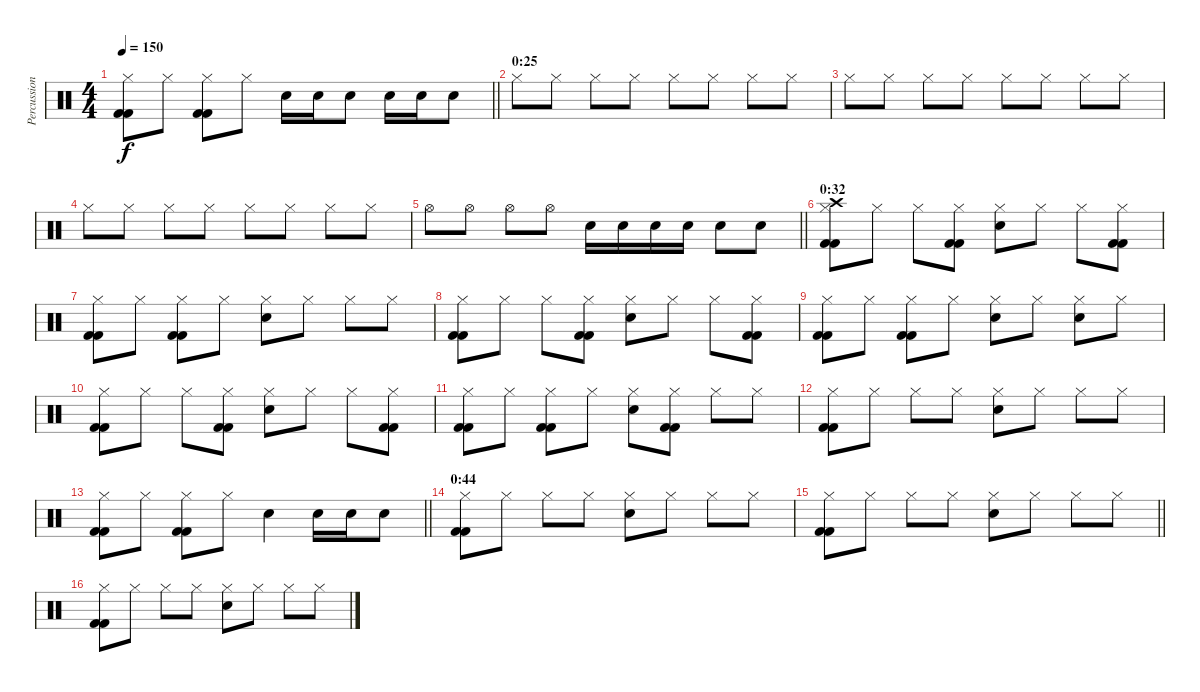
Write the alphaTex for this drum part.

\track ("Percussion" "Percussion") {instrument percussion}
\staff {score}
\articulation defaults
\ts (4 4)
\tempo 150
\clef neutral
\barLineRight lightlight
\ks c
("Kick (hit) 2" "Kick (hit) 2" "Hi-Hat (closed)").8{dy f} "Hi-Hat (closed)".8 ("Kick (hit) 2" "Kick (hit) 2" "Hi-Hat (closed)").8 "Hi-Hat (closed)".8 "Electric Snare (hit)".16 "Electric Snare (hit)".16 "Electric Snare (hit)".8 "Electric Snare (hit)".16 "Electric Snare (hit)".16 "Electric Snare (hit)".8 |
\section ("" "0:25")
"Hi-Hat (closed)".8 "Hi-Hat (closed)".8 "Hi-Hat (closed)".8 "Hi-Hat (closed)".8 "Hi-Hat (closed)".8 "Hi-Hat (closed)".8 "Hi-Hat (closed)".8 "Hi-Hat (closed)".8 |
"Hi-Hat (closed)".8 "Hi-Hat (closed)".8 "Hi-Hat (closed)".8 "Hi-Hat (closed)".8 "Hi-Hat (closed)".8 "Hi-Hat (closed)".8 "Hi-Hat (closed)".8 "Hi-Hat (closed)".8 |
"Hi-Hat (closed)".8 "Hi-Hat (closed)".8 "Hi-Hat (closed)".8 "Hi-Hat (closed)".8 "Hi-Hat (closed)".8 "Hi-Hat (closed)".8 "Hi-Hat (closed)".8 "Hi-Hat (closed)".8 |
\barLineRight lightlight "Hi-Hat (open)".8 "Hi-Hat (open)".8 "Hi-Hat (open)".8 "Hi-Hat (open)".8 "Electric Snare (hit)".16 "Electric Snare (hit)".16 "Electric Snare (hit)".16 "Electric Snare (hit)".16 "Electric Snare (hit)".8 "Electric Snare (hit)".8
|
\section ("" "0:32")
("Kick (hit) 2" "Kick (hit) 2" "Hi-Hat (closed)" "Crash high (hit)").8 "Hi-Hat (closed)".8 "Hi-Hat (closed)".8 ("Kick (hit) 2" "Kick (hit) 2" "Hi-Hat (closed)").8 ("Electric Snare (hit)" "Hi-Hat (closed)").8 "Hi-Hat (closed)".8 "Hi-Hat (closed)".8 ("Kick (hit) 2" "Kick (hit) 2" "Hi-Hat (closed)").8 |
("Kick (hit) 2" "Kick (hit) 2" "Hi-Hat (closed)").8 "Hi-Hat (closed)".8 ("Kick (hit) 2" "Kick (hit) 2" "Hi-Hat (closed)").8 "Hi-Hat (closed)".8 ("Electric Snare (hit)" "Hi-Hat (closed)").8 "Hi-Hat (closed)".8 "Hi-Hat (closed)".8 "Hi-Hat (closed)".8 |
("Kick (hit) 2" "Kick (hit) 2" "Hi-Hat (closed)").8 "Hi-Hat (closed)".8 "Hi-Hat (closed)".8 ("Kick (hit) 2" "Kick (hit) 2" "Hi-Hat (closed)").8 ("Electric Snare (hit)" "Hi-Hat (closed)").8 "Hi-Hat (closed)".8 "Hi-Hat (closed)".8 ("Kick (hit) 2" "Kick (hit) 2" "Hi-Hat (closed)").8 |
("Kick (hit) 2" "Kick (hit) 2" "Hi-Hat (closed)").8 "Hi-Hat (closed)".8 ("Kick (hit) 2" "Kick (hit) 2" "Hi-Hat (closed)").8 "Hi-Hat (closed)".8 ("Electric Snare (hit)" "Hi-Hat (closed)").8 "Hi-Hat (closed)".8 ("Electric Snare (hit)" "Hi-Hat (closed)").8 "Hi-Hat (closed)".8 |
("Kick (hit) 2" "Kick (hit) 2" "Hi-Hat (closed)").8 "Hi-Hat (closed)".8 "Hi-Hat (closed)".8 ("Kick (hit) 2" "Kick (hit) 2" "Hi-Hat (closed)").8 ("Electric Snare (hit)" "Hi-Hat (closed)").8 "Hi-Hat (closed)".8 "Hi-Hat (closed)".8 ("Kick (hit) 2" "Kick (hit) 2" "Hi-Hat (closed)").8 |
("Kick (hit) 2" "Kick (hit) 2" "Hi-Hat (closed)").8 "Hi-Hat (closed)".8 ("Kick (hit) 2" "Kick (hit) 2" "Hi-Hat (closed)").8 "Hi-Hat (closed)".8 ("Electric Snare (hit)" "Hi-Hat (closed)").8 ("Kick (hit) 2" "Kick (hit) 2" "Hi-Hat (closed)").8 "Hi-Hat (closed)".8 "Hi-Hat (closed)".8 |
("Kick (hit) 2" "Kick (hit) 2" "Hi-Hat (closed)").8 "Hi-Hat (closed)".8 "Hi-Hat (closed)".8 "Hi-Hat (closed)".8 ("Electric Snare (hit)" "Hi-Hat (closed)").8 "Hi-Hat (closed)".8 "Hi-Hat (closed)".8 "Hi-Hat (closed)".8 |
\barLineRight lightlight
("Kick (hit) 2" "Kick (hit) 2" "Hi-Hat (closed)").8 "Hi-Hat (closed)".8 ("Kick (hit) 2" "Kick (hit) 2" "Hi-Hat (closed)").8 "Hi-Hat (closed)".8 "Electric Snare (hit)".4 "Electric Snare (hit)".16 "Electric Snare (hit)".16 "Electric Snare (hit)".8 |
\section ("" "0:44")
("Kick (hit) 2" "Kick (hit) 2" "Hi-Hat (closed)").8 "Hi-Hat (closed)".8 "Hi-Hat (closed)".8 "Hi-Hat (closed)".8 ("Electric Snare (hit)" "Hi-Hat (closed)").8 "Hi-Hat (closed)".8 "Hi-Hat (closed)".8 "Hi-Hat (closed)".8 |
\barLineRight lightlight
("Kick (hit) 2" "Kick (hit) 2" "Hi-Hat (closed)").8 "Hi-Hat (closed)".8 "Hi-Hat (closed)".8 "Hi-Hat (closed)".8 ("Electric Snare (hit)" "Hi-Hat (closed)").8 "Hi-Hat (closed)".8 "Hi-Hat (closed)".8 "Hi-Hat (closed)".8 |
("Kick (hit) 2" "Kick (hit) 2" "Hi-Hat (closed)").8 "Hi-Hat (closed)".8 "Hi-Hat (closed)".8 "Hi-Hat (closed)".8 ("Electric Snare (hit)" "Hi-Hat (closed)").8 "Hi-Hat (closed)".8 "Hi-Hat (closed)".8 "Hi-Hat (closed)".8
